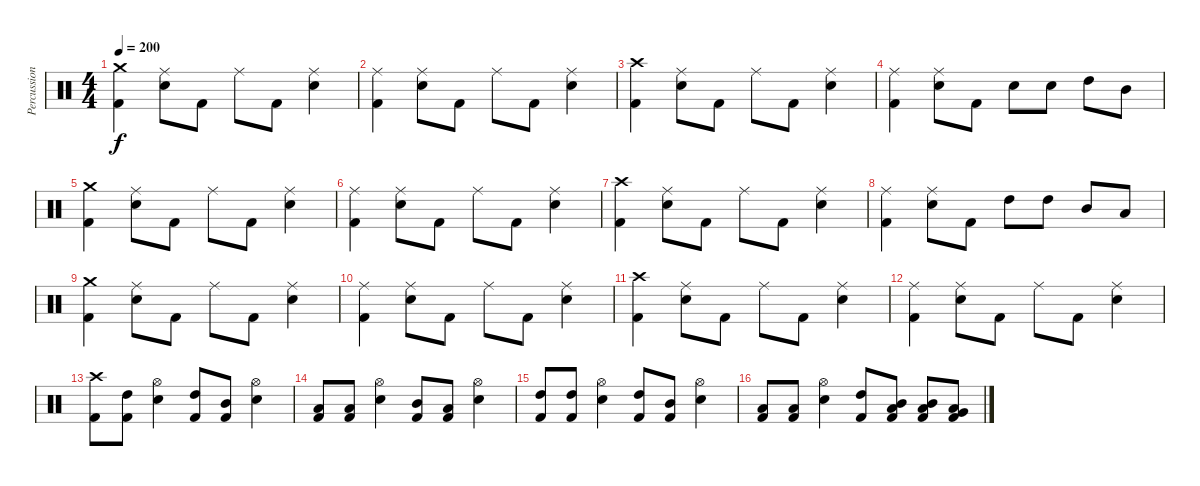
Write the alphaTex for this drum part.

\track ("Percussioni" "Percussion") {instrument percussion}
\staff {score}
\articulation defaults
\ts (4 4)
\tempo 200
\clef neutral
\ks c
("Crash medium (hit)" "Kick (hit) 2").4{dy f} ("Ride (middle)" "Electric Snare (hit)").8 "Kick (hit) 2".8 "Ride (middle)".8 "Kick (hit) 2".8 ("Ride (middle)" "Electric Snare (hit)").4 |
("Ride (middle)" "Kick (hit) 2").4 ("Ride (middle)" "Electric Snare (hit)").8 "Kick (hit) 2".8 "Ride (middle)".8 "Kick (hit) 2".8 ("Ride (middle)" "Electric Snare (hit)").4 |
("Crash high (hit)" "Kick (hit) 2").4 ("Ride (middle)" "Electric Snare (hit)").8 "Kick (hit) 2".8 "Ride (middle)".8 "Kick (hit) 2".8 ("Ride (middle)" "Electric Snare (hit)").4 |
("Ride (middle)" "Kick (hit) 2").4 ("Ride (middle)" "Electric Snare (hit)").8 "Kick (hit) 2".8 "Electric Snare (hit)".8 "Electric Snare (hit)".8 "High Tom (hit)".8 "Mid Tom (hit)".8 |
("Crash medium (hit)" "Kick (hit) 2").4 ("Ride (middle)" "Electric Snare (hit)").8 "Kick (hit) 2".8 "Ride (middle)".8 "Kick (hit) 2".8 ("Ride (middle)" "Electric Snare (hit)").4 |
("Ride (middle)" "Kick (hit) 2").4 ("Ride (middle)" "Electric Snare (hit)").8 "Kick (hit) 2".8 "Ride (middle)".8 "Kick (hit) 2".8 ("Ride (middle)" "Electric Snare (hit)").4 |
("Crash high (hit)" "Kick (hit) 2").4 ("Ride (middle)" "Electric Snare (hit)").8 "Kick (hit) 2".8 "Ride (middle)".8 "Kick (hit) 2".8 ("Ride (middle)" "Electric Snare (hit)").4 |
("Ride (middle)" "Kick (hit) 2").4 ("Ride (middle)" "Electric Snare (hit)").8 "Kick (hit) 2".8 "High Tom (hit)".8 "High Tom (hit)".8 "Mid Tom (hit)".8 "Low Tom (hit)".8 |
("Crash medium (hit)" "Kick (hit) 2").4 ("Ride (middle)" "Electric Snare (hit)").8 "Kick (hit) 2".8 "Ride (middle)".8 "Kick (hit) 2".8 ("Ride (middle)" "Electric Snare (hit)").4 |
("Ride (middle)" "Kick (hit) 2").4 ("Ride (middle)" "Electric Snare (hit)").8 "Kick (hit) 2".8 "Ride (middle)".8 "Kick (hit) 2".8 ("Ride (middle)" "Electric Snare (hit)").4 |
("Crash high (hit)" "Kick (hit) 2").4 ("Ride (middle)" "Electric Snare (hit)").8 "Kick (hit) 2".8 "Ride (middle)".8 "Kick (hit) 2".8 ("Ride (middle)" "Electric Snare (hit)").4 |
("Ride (middle)" "Kick (hit) 2").4 ("Ride (middle)" "Electric Snare (hit)").8 "Kick (hit) 2".8 "Ride (middle)".8 "Kick (hit) 2".8 ("Ride (middle)" "Electric Snare (hit)").4 |
("Crash high (hit)" "Kick (hit) 2").8 ("High Tom (hit)" "Kick (hit) 2").8 ("Hi-Hat (open)" "Electric Snare (hit)").4 ("High Tom (hit)" "Kick (hit) 2").8 ("Mid Tom (hit)" "Kick (hit) 2").8 ("Hi-Hat (open)" "Electric Snare (hit)").4 |
("Low Tom (hit)" "Kick (hit) 2").8 ("Low Tom (hit)" "Kick (hit) 2").8 ("Hi-Hat (open)" "Electric Snare (hit)").4 ("Mid Tom (hit)" "Kick (hit) 2").8 ("Low Tom (hit)" "Kick (hit) 2").8 ("Hi-Hat (open)" "Electric Snare (hit)").4 |
("High Tom (hit)" "Kick (hit) 2").8 ("High Tom (hit)" "Kick (hit) 2").8 ("Hi-Hat (open)" "Electric Snare (hit)").4 ("High Tom (hit)" "Kick (hit) 2").8 ("Mid Tom (hit)" "Kick (hit) 2").8 ("Hi-Hat (open)" "Electric Snare (hit)").4 |
("Low Tom (hit)" "Kick (hit) 2").8 ("Low Tom (hit)" "Kick (hit) 2").8 ("Hi-Hat (open)" "Electric Snare (hit)").4 ("High Tom (hit)" "Kick (hit) 2").8 ("Mid Tom (hit)" "Low Tom (hit)" "Kick (hit) 2").8 ("Mid Tom (hit)" "Low Tom (hit)" "Kick (hit) 2").8 ("Low Tom (hit)" "Very Low Tom (hit)" "Kick (hit) 2").8
